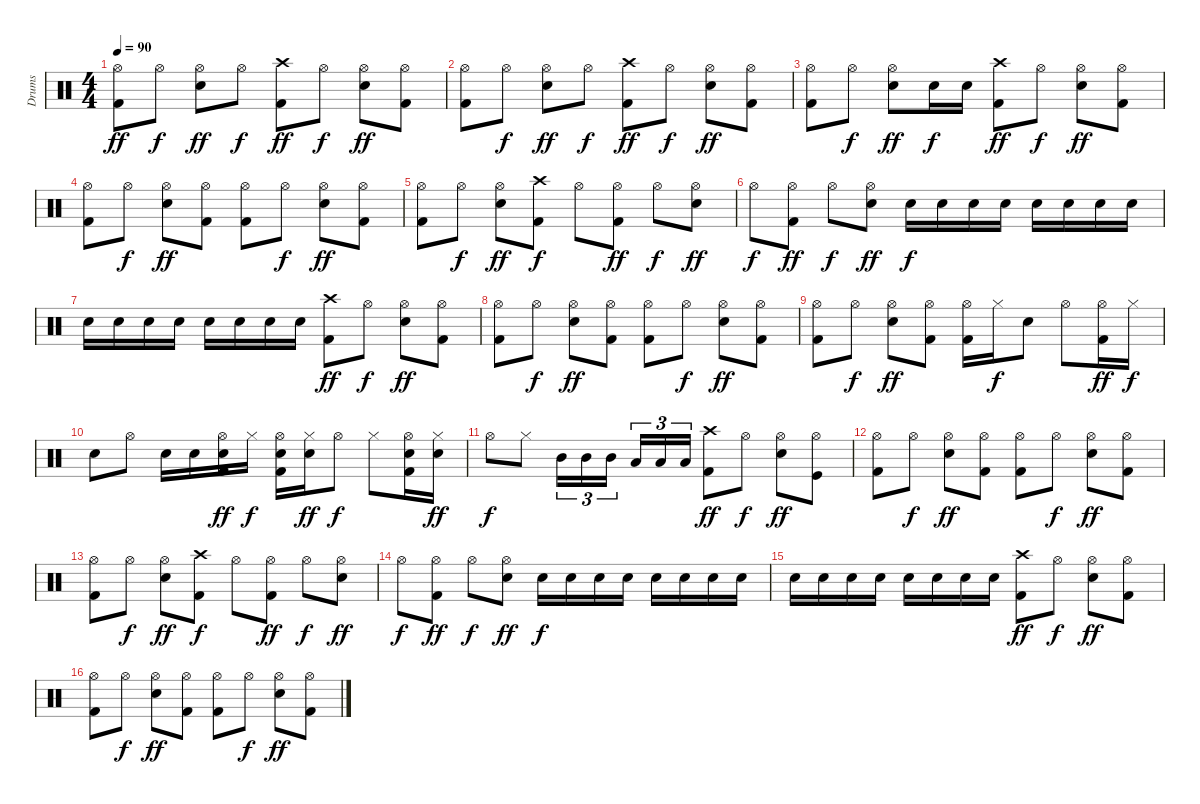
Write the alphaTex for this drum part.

\track ("Drums" "Drums") {instrument percussion}
\staff {score}
\articulation defaults
\ts (4 4)
\tempo 90
\clef neutral
\ks c
("Hi-Hat (open)" "Kick (hit) 2").8{dy ff} "Hi-Hat (open)".8{dy f} ("Hi-Hat (open)" "Electric Snare (hit)").8{dy ff} "Hi-Hat (open)".8{dy f} ("Crash high (hit)" "Kick (hit) 2").8{dy ff} "Hi-Hat (open)".8{dy f} ("Hi-Hat (open)" "Electric Snare (hit)").8{dy ff} ("Hi-Hat (open)" "Kick (hit) 2").8 |
("Hi-Hat (open)" "Kick (hit) 2").8 "Hi-Hat (open)".8{dy f} ("Hi-Hat (open)" "Electric Snare (hit)").8{dy ff} "Hi-Hat (open)".8{dy f} ("Crash high (hit)" "Kick (hit) 2").8{dy ff} "Hi-Hat (open)".8{dy f} ("Hi-Hat (open)" "Electric Snare (hit)").8{dy ff} ("Hi-Hat (open)" "Kick (hit) 2").8 |
("Hi-Hat (open)" "Kick (hit) 2").8 "Hi-Hat (open)".8{dy f} ("Hi-Hat (open)" "Electric Snare (hit)").8{dy ff} "Electric Snare (hit)".16{dy f} "Electric Snare (hit)".16 ("Crash high (hit)" "Kick (hit) 2").8{dy ff} "Hi-Hat (open)".8{dy f} ("Hi-Hat (open)" "Electric Snare (hit)").8{dy ff} ("Hi-Hat (open)" "Kick (hit) 2").8 |
("Hi-Hat (open)" "Kick (hit) 2").8 "Hi-Hat (open)".8{dy f} ("Hi-Hat (open)" "Electric Snare (hit)").8{dy ff} ("Hi-Hat (open)" "Kick (hit) 2").8 ("Hi-Hat (open)" "Kick (hit) 2").8 "Hi-Hat (open)".8{dy f} ("Hi-Hat (open)" "Electric Snare (hit)").8{dy ff} ("Hi-Hat (open)" "Kick (hit) 2").8 |
("Hi-Hat (open)" "Kick (hit) 2").8 "Hi-Hat (open)".8{dy f} ("Hi-Hat (open)" "Electric Snare (hit)").8{dy ff} ("Crash high (hit)" "Kick (hit) 2").8{dy f} "Hi-Hat (open)".8 ("Hi-Hat (open)" "Kick (hit) 2").8{dy ff} "Hi-Hat (open)".8{dy f} ("Hi-Hat (open)" "Electric Snare (hit)").8{dy ff} |
"Hi-Hat (open)".8{dy f} ("Hi-Hat (open)" "Kick (hit) 2").8{dy ff} "Hi-Hat (open)".8{dy f} ("Hi-Hat (open)" "Electric Snare (hit)").8{dy ff} "Electric Snare (hit)".16{dy f} "Electric Snare (hit)".16 "Electric Snare (hit)".16 "Electric Snare (hit)".16 "Electric Snare (hit)".16 "Electric Snare (hit)".16 "Electric Snare (hit)".16 "Electric Snare (hit)".16 |
"Electric Snare (hit)".16 "Electric Snare (hit)".16 "Electric Snare (hit)".16 "Electric Snare (hit)".16 "Electric Snare (hit)".16 "Electric Snare (hit)".16 "Electric Snare (hit)".16 "Electric Snare (hit)".16 ("Crash high (hit)" "Kick (hit) 2").8{dy ff} "Hi-Hat (open)".8{dy f} ("Hi-Hat (open)" "Electric Snare (hit)").8{dy ff} ("Hi-Hat (open)" "Kick (hit) 2").8 |
("Hi-Hat (open)" "Kick (hit) 2").8 "Hi-Hat (open)".8{dy f} ("Hi-Hat (open)" "Electric Snare (hit)").8{dy ff} ("Hi-Hat (open)" "Kick (hit) 2").8 ("Hi-Hat (open)" "Kick (hit) 2").8 "Hi-Hat (open)".8{dy f} ("Hi-Hat (open)" "Electric Snare (hit)").8{dy ff} ("Hi-Hat (open)" "Kick (hit) 2").8 |
("Hi-Hat (open)" "Kick (hit) 2").8 "Hi-Hat (open)".8{dy f} ("Hi-Hat (open)" "Electric Snare (hit)").8{dy ff} ("Hi-Hat (open)" "Kick (hit) 2").8 ("Hi-Hat (open)" "Kick (hit) 2").16 "Hi-Hat (closed)".16{dy f} "Electric Snare (hit)".8 "Hi-Hat (open)".8 ("Hi-Hat (open)" "Kick (hit) 2").16{dy ff} "Hi-Hat (closed)".16{dy f} |
"Electric Snare (hit)".8 "Hi-Hat (open)".8 "Electric Snare (hit)".16 "Electric Snare (hit)".16 ("Hi-Hat (open)" "Electric Snare (hit)" "Kick (hit) 2").16{dy ff} "Hi-Hat (closed)".16{dy f} ("Hi-Hat (open)" "Electric Snare (hit)" "Kick (hit) 2").16 ("Hi-Hat (closed)" "Electric Snare (hit)").16{dy ff} "Hi-Hat (open)".8{dy f} "Hi-Hat (closed)".8 ("Hi-Hat (open)" "Electric Snare (hit)" "Kick (hit) 2").16 ("Hi-Hat (closed)" "Electric Snare (hit)").16{dy ff} |
"Hi-Hat (open)".8{dy f} "Hi-Hat (closed)".8 "Mid Tom (hit)".16{tu (3 2)} "Mid Tom (hit)".16{tu (3 2)} "Mid Tom (hit)".16{tu (3 2)} "Low Tom (hit)".16{tu (3 2)} "Low Tom (hit)".16{tu (3 2)} "Low Tom (hit)".16{tu (3 2)} ("Crash high (hit)" "Kick (hit) 2").8{dy ff} "Hi-Hat (open)".8{dy f} ("Hi-Hat (open)" "Electric Snare (hit)").8{dy ff} ("Hi-Hat (open)" "Kick (hit)").8 |
("Hi-Hat (open)" "Kick (hit) 2").8 "Hi-Hat (open)".8{dy f} ("Hi-Hat (open)" "Electric Snare (hit)").8{dy ff} ("Hi-Hat (open)" "Kick (hit) 2").8 ("Hi-Hat (open)" "Kick (hit) 2").8 "Hi-Hat (open)".8{dy f} ("Hi-Hat (open)" "Electric Snare (hit)").8{dy ff} ("Hi-Hat (open)" "Kick (hit) 2").8 |
("Hi-Hat (open)" "Kick (hit) 2").8 "Hi-Hat (open)".8{dy f} ("Hi-Hat (open)" "Electric Snare (hit)").8{dy ff} ("Crash high (hit)" "Kick (hit) 2").8{dy f} "Hi-Hat (open)".8 ("Hi-Hat (open)" "Kick (hit) 2").8{dy ff} "Hi-Hat (open)".8{dy f} ("Hi-Hat (open)" "Electric Snare (hit)").8{dy ff} |
"Hi-Hat (open)".8{dy f} ("Hi-Hat (open)" "Kick (hit) 2").8{dy ff} "Hi-Hat (open)".8{dy f} ("Hi-Hat (open)" "Electric Snare (hit)").8{dy ff} "Electric Snare (hit)".16{dy f} "Electric Snare (hit)".16 "Electric Snare (hit)".16 "Electric Snare (hit)".16 "Electric Snare (hit)".16 "Electric Snare (hit)".16 "Electric Snare (hit)".16 "Electric Snare (hit)".16 |
"Electric Snare (hit)".16 "Electric Snare (hit)".16 "Electric Snare (hit)".16 "Electric Snare (hit)".16 "Electric Snare (hit)".16 "Electric Snare (hit)".16 "Electric Snare (hit)".16 "Electric Snare (hit)".16 ("Crash high (hit)" "Kick (hit) 2").8{dy ff} "Hi-Hat (open)".8{dy f} ("Hi-Hat (open)" "Electric Snare (hit)").8{dy ff} ("Hi-Hat (open)" "Kick (hit) 2").8 |
("Hi-Hat (open)" "Kick (hit) 2").8 "Hi-Hat (open)".8{dy f} ("Hi-Hat (open)" "Electric Snare (hit)").8{dy ff} ("Hi-Hat (open)" "Kick (hit) 2").8 ("Hi-Hat (open)" "Kick (hit) 2").8 "Hi-Hat (open)".8{dy f} ("Hi-Hat (open)" "Electric Snare (hit)").8{dy ff} ("Hi-Hat (open)" "Kick (hit) 2").8
